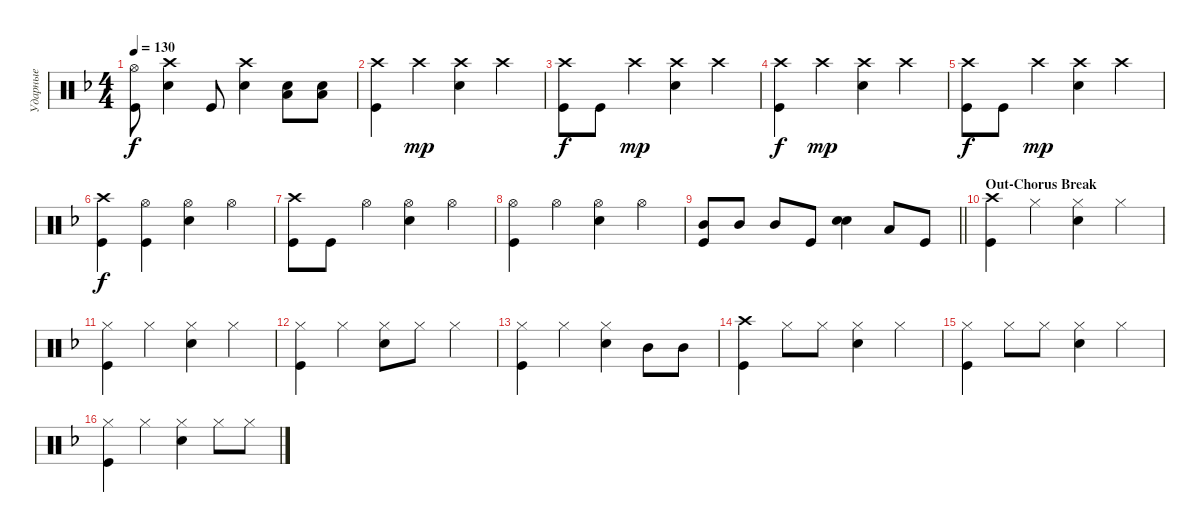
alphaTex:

\track ("Ударные" "Ударные") {instrument percussion}
\staff {score}
\articulation defaults
\ts (4 4)
\tempo 130
\clef neutral
\ks dminor
("Kick (hit)" "Hi-Hat (open)").8{dy f} ("Snare (hit) 2" "Crash high (hit)").4 "Kick (hit)".8 ("Snare (hit) 2" "Crash high (hit)").4 ("Low Tom (hit)" "Snare (hit) 2").8 ("Low Tom (hit)" "Snare (hit) 2").8 |
("Kick (hit)" "Crash high (hit)").4 "Crash high (hit)".4{dy mp} ("Snare (hit) 2" "Crash high (hit)").4 "Crash high (hit)".4 |
("Crash high (hit)" "Kick (hit)").8{dy f} "Kick (hit)".8 "Crash high (hit)".4{dy mp} ("Crash high (hit)" "Snare (hit) 2").4 "Crash high (hit)".4 |
("Kick (hit)" "Crash high (hit)").4{dy f} "Crash high (hit)".4{dy mp} ("Snare (hit) 2" "Crash high (hit)").4 "Crash high (hit)".4 |
("Crash high (hit)" "Kick (hit)").8{dy f} "Kick (hit)".8 "Crash high (hit)".4{dy mp} ("Crash high (hit)" "Snare (hit) 2").4 "Crash high (hit)".4 |
("Kick (hit)" "Crash high (hit)").4{dy f} ("Hi-Hat (open)" "Kick (hit)").4 ("Snare (hit) 2" "Hi-Hat (open)").4 "Hi-Hat (open)".4 |
("Crash high (hit)" "Kick (hit)").8 "Kick (hit)".8 "Hi-Hat (open)".4 ("Hi-Hat (open)" "Snare (hit) 2").4 "Hi-Hat (open)".4 |
("Kick (hit)" "Hi-Hat (open)").4 "Hi-Hat (open)".4 ("Snare (hit) 2" "Hi-Hat (open)").4 "Hi-Hat (open)".4 |
\barLineRight lightlight
("Mid Tom (hit)" "Kick (hit)").8 "Mid Tom (hit)".8 "Mid Tom (hit)".8 "Kick (hit)".8 ("Snare (hit) 2" "Snare (hit) 2").4{bd 120} "Low Tom (hit)".8 "Kick (hit)".8 |
\section ("" "Out-Chorus Break")
("Kick (hit)" "Crash high (hit)").4 "Hi-Hat (closed)".4 ("Snare (hit) 2" "Hi-Hat (closed)").4 "Hi-Hat (closed)".4 |
("Hi-Hat (closed)" "Kick (hit)").4 "Hi-Hat (closed)".4 ("Hi-Hat (closed)" "Snare (hit) 2").4 "Hi-Hat (closed)".4 |
("Hi-Hat (closed)" "Kick (hit)").4 "Hi-Hat (closed)".4 ("Hi-Hat (closed)" "Snare (hit) 2").8 "Hi-Hat (closed)".8 "Hi-Hat (closed)".4 |
("Hi-Hat (closed)" "Kick (hit)").4 "Hi-Hat (closed)".4 ("Hi-Hat (closed)" "Snare (hit) 2").4 "Mid Tom (hit)".8 "Mid Tom (hit)".8 |
("Kick (hit)" "Crash high (hit)").4 "Hi-Hat (closed)".8 "Hi-Hat (closed)".8 ("Snare (hit) 2" "Hi-Hat (closed)").4 "Hi-Hat (closed)".4 |
("Hi-Hat (closed)" "Kick (hit)").4 "Hi-Hat (closed)".8 "Hi-Hat (closed)".8 ("Hi-Hat (closed)" "Snare (hit) 2").4 "Hi-Hat (closed)".4 |
("Hi-Hat (closed)" "Kick (hit)").4 "Hi-Hat (closed)".4 ("Hi-Hat (closed)" "Snare (hit) 2").4 "Hi-Hat (closed)".8 "Hi-Hat (closed)".8
